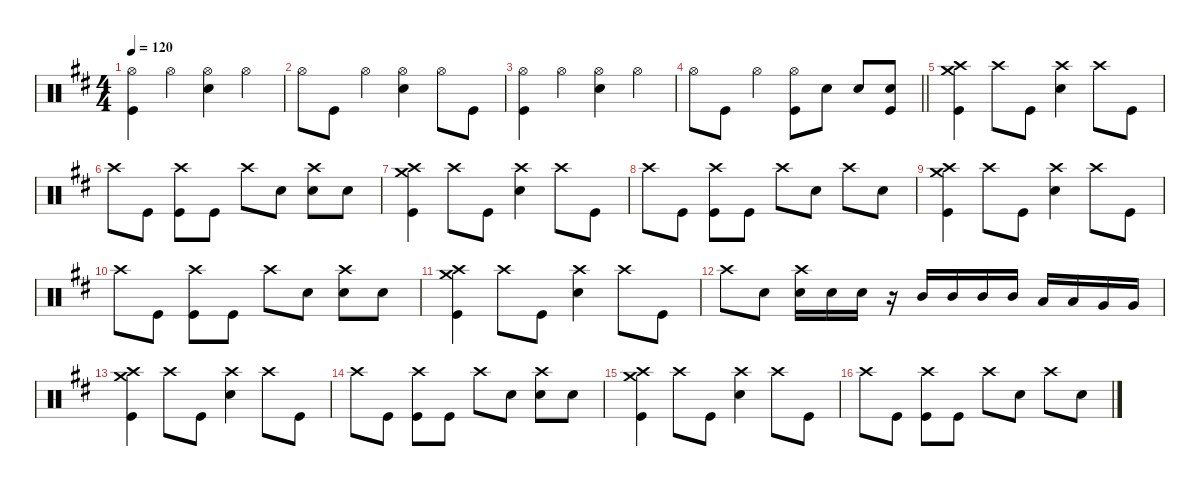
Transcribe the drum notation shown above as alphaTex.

\defaultSystemsLayout 4
\hideDynamics
\bracketExtendMode nobrackets
\singleTrackTrackNamePolicy hidden
\multiTrackTrackNamePolicy hidden
\firstSystemTrackNameMode fullname
\firstSystemTrackNameOrientation horizontal
\otherSystemsTrackNameOrientation horizontal
\track ("Aaron Harris" "drm.") {defaultSystemsLayout 4 instrument percussion}
\staff {score}
\articulation defaults
\ts (4 4)
\tempo 120
\clef neutral
\ks bminor
("Hi-Hat (open)"{acc forcenatural} "Kick (hit)"{acc forcenatural}).4{dy f beam Down} "Hi-Hat (open)"{acc forcenatural}.4{beam Down} ("Hi-Hat (open)"{acc forcenatural} "Snare (hit) 2"{acc forcenatural}).4{beam Down} "Hi-Hat (open)"{acc forcenatural}.4{beam Down} |
"Hi-Hat (open)"{acc forcenatural}.8{beam Down} "Kick (hit)"{acc forcenatural}.8{beam Down} "Hi-Hat (open)"{acc forcenatural}.4{beam Down} ("Hi-Hat (open)"{acc forcenatural} "Snare (hit) 2"{acc forcenatural}).4{beam Down} "Hi-Hat (open)"{acc forcenatural}.8{beam Down} "Kick (hit)"{acc forcenatural}.8{beam Down} |
("Hi-Hat (open)"{acc forcenatural} "Kick (hit)"{acc forcenatural}).4{beam Down} "Hi-Hat (open)"{acc forcenatural}.4{beam Down} ("Hi-Hat (open)"{acc forcenatural} "Snare (hit) 2"{acc forcenatural}).4{beam Down} "Hi-Hat (open)"{acc forcenatural}.4{beam Down} |
\barLineRight lightlight "Hi-Hat (open)"{acc forcenatural}.8{beam Down} "Kick (hit)"{acc forcenatural}.8{beam Down} "Hi-Hat (open)"{acc forcenatural}.4{beam Down}
("Hi-Hat (open)"{acc forcenatural} "Kick (hit)"{acc forcenatural}).8{beam Down} "Snare (hit) 2"{acc forcenatural}.8{beam Down} "Snare (hit) 2"{acc forcenatural}.8{beam Up} ("Snare (hit) 2"{acc forcenatural} "Kick (hit)"{acc forcenatural}).8{beam Up} |
("Crash high (hit)"{acc forcenatural} "Crash medium (hit)"{acc forcenatural} "Kick (hit)"{acc forcenatural}).4{beam Down} "Crash high (hit)"{acc forcenatural}.8{beam Down} "Kick (hit)"{acc forcenatural}.8{beam Down} ("Crash high (hit)"{acc forcenatural} "Snare (hit) 2"{acc forcenatural}).4{beam Down} "Crash high (hit)"{acc forcenatural}.8{beam Down} "Kick (hit)"{acc forcenatural}.8{beam Down} |
"Crash high (hit)"{acc forcenatural}.8{beam Down} "Kick (hit)"{acc forcenatural}.8{beam Down} ("Crash high (hit)"{acc forcenatural} "Kick (hit)"{acc forcenatural}).8{beam Down} "Kick (hit)"{acc forcenatural}.8{beam Down} "Crash high (hit)"{acc forcenatural}.8{beam Down} "Snare (hit) 2"{acc forcenatural}.8{beam Down} ("Crash high (hit)"{acc forcenatural} "Snare (hit) 2"{acc forcenatural}).8{beam Down} "Snare (hit) 2"{acc forcenatural}.8{beam Down} |
("Crash high (hit)"{acc forcenatural} "Crash medium (hit)"{acc forcenatural} "Kick (hit)"{acc forcenatural}).4{beam Down} "Crash high (hit)"{acc forcenatural}.8{beam Down} "Kick (hit)"{acc forcenatural}.8{beam Down} ("Crash high (hit)"{acc forcenatural} "Snare (hit) 2"{acc forcenatural}).4{beam Down} "Crash high (hit)"{acc forcenatural}.8{beam Down} "Kick (hit)"{acc forcenatural}.8{beam Down} |
"Crash high (hit)"{acc forcenatural}.8{beam Down} "Kick (hit)"{acc forcenatural}.8{beam Down} ("Crash high (hit)"{acc forcenatural} "Kick (hit)"{acc forcenatural}).8{beam Down} "Kick (hit)"{acc forcenatural}.8{beam Down} "Crash high (hit)"{acc forcenatural}.8{beam Down} "Snare (hit) 2"{acc forcenatural}.8{beam Down} "Crash high (hit)"{acc forcenatural}.8{beam Down} "Snare (hit) 2"{acc forcenatural}.8{beam Down} |
("Crash high (hit)"{acc forcenatural} "Crash medium (hit)"{acc forcenatural} "Kick (hit)"{acc forcenatural}).4{beam Down} "Crash high (hit)"{acc forcenatural}.8{beam Down} "Kick (hit)"{acc forcenatural}.8{beam Down} ("Crash high (hit)"{acc forcenatural} "Snare (hit) 2"{acc forcenatural}).4{beam Down} "Crash high (hit)"{acc forcenatural}.8{beam Down} "Kick (hit)"{acc forcenatural}.8{beam Down} |
"Crash high (hit)"{acc forcenatural}.8{beam Down} "Kick (hit)"{acc forcenatural}.8{beam Down} ("Crash high (hit)"{acc forcenatural} "Kick (hit)"{acc forcenatural}).8{beam Down} "Kick (hit)"{acc forcenatural}.8{beam Down} "Crash high (hit)"{acc forcenatural}.8{beam Down} "Snare (hit) 2"{acc forcenatural}.8{beam Down} ("Crash high (hit)"{acc forcenatural} "Snare (hit) 2"{acc forcenatural}).8{beam Down} "Snare (hit) 2"{acc forcenatural}.8{beam Down} |
("Crash high (hit)"{acc forcenatural} "Crash medium (hit)"{acc forcenatural} "Kick (hit)"{acc forcenatural}).4{beam Down} "Crash high (hit)"{acc forcenatural}.8{beam Down} "Kick (hit)"{acc forcenatural}.8{beam Down} ("Crash high (hit)"{acc forcenatural} "Snare (hit) 2"{acc forcenatural}).4{beam Down} "Crash high (hit)"{acc forcenatural}.8{beam Down} "Kick (hit)"{acc forcenatural}.8{beam Down} |
"Crash high (hit)"{acc forcenatural}.8{beam Down} "Snare (hit) 2"{acc forcenatural}.8{beam Down} ("Crash high (hit)"{acc forcenatural} "Snare (hit) 2"{acc forcenatural}).16{beam Down} "Snare (hit) 2"{acc forcenatural}.16{beam Down} "Snare (hit) 2"{acc forcenatural}.16{beam Down} r.16{beam Down} "Mid Tom (hit)"{acc forcenatural}.16{beam Up} "Mid Tom (hit)"{acc forcenatural}.16{beam Up} "Mid Tom (hit)"{acc forcenatural}.16{beam Up} "Mid Tom (hit)"{acc forcenatural}.16{beam Up} "Low Tom (hit)"{acc forcenatural}.16{beam Up} "Low Tom (hit)"{acc forcenatural}.16{beam Up} "Very Low Tom (hit)"{acc forcenatural}.16{beam Up} "Very Low Tom (hit)"{acc forcenatural}.16{beam Up} |
("Crash high (hit)"{acc forcenatural} "Crash medium (hit)"{acc forcenatural} "Kick (hit)"{acc forcenatural}).4{beam Down} "Crash high (hit)"{acc forcenatural}.8{beam Down} "Kick (hit)"{acc forcenatural}.8{beam Down} ("Crash high (hit)"{acc forcenatural} "Snare (hit) 2"{acc forcenatural}).4{beam Down} "Crash high (hit)"{acc forcenatural}.8{beam Down} "Kick (hit)"{acc forcenatural}.8{beam Down} |
"Crash high (hit)"{acc forcenatural}.8{beam Down} "Kick (hit)"{acc forcenatural}.8{beam Down} ("Crash high (hit)"{acc forcenatural} "Kick (hit)"{acc forcenatural}).8{beam Down} "Kick (hit)"{acc forcenatural}.8{beam Down} "Crash high (hit)"{acc forcenatural}.8{beam Down} "Snare (hit) 2"{acc forcenatural}.8{beam Down} ("Crash high (hit)"{acc forcenatural} "Snare (hit) 2"{acc forcenatural}).8{beam Down} "Snare (hit) 2"{acc forcenatural}.8{beam Down} |
("Crash high (hit)"{acc forcenatural} "Crash medium (hit)"{acc forcenatural} "Kick (hit)"{acc forcenatural}).4{beam Down} "Crash high (hit)"{acc forcenatural}.8{beam Down} "Kick (hit)"{acc forcenatural}.8{beam Down} ("Crash high (hit)"{acc forcenatural} "Snare (hit) 2"{acc forcenatural}).4{beam Down} "Crash high (hit)"{acc forcenatural}.8{beam Down} "Kick (hit)"{acc forcenatural}.8{beam Down} |
"Crash high (hit)"{acc forcenatural}.8{beam Down} "Kick (hit)"{acc forcenatural}.8{beam Down} ("Crash high (hit)"{acc forcenatural} "Kick (hit)"{acc forcenatural}).8{beam Down} "Kick (hit)"{acc forcenatural}.8{beam Down} "Crash high (hit)"{acc forcenatural}.8{beam Down} "Snare (hit) 2"{acc forcenatural}.8{beam Down} "Crash high (hit)"{acc forcenatural}.8{beam Down} "Snare (hit) 2"{acc forcenatural}.8{beam Down}
